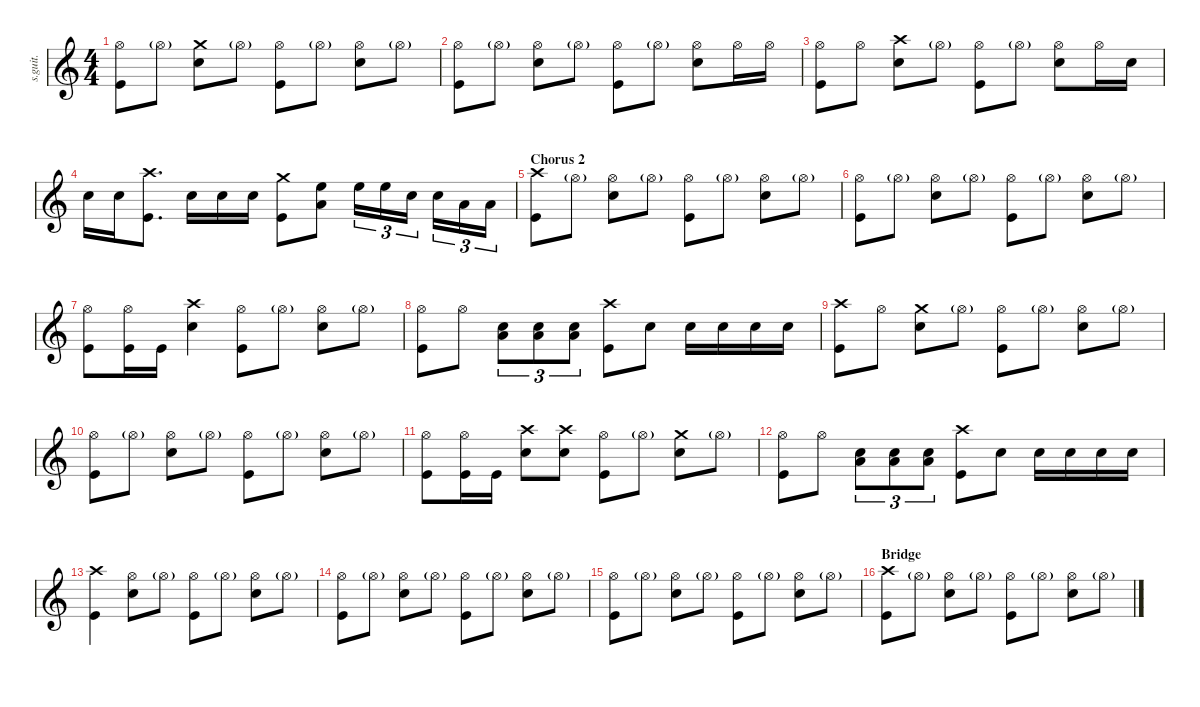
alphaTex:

\defaultSystemsLayout 4
\hideDynamics
\bracketExtendMode nobrackets
\track ("Lars Ulrich" "s.guit.") {instrument percussion}
\staff {score}
\articulation defaults
\ts (4 4)
\tempo (90 hide)
\clef g2
\ks c
("Hi-Hat (open)" "Kick (hit)").8{lyrics (0 "") lyrics (1 "") lyrics (2 "") lyrics (3 "") lyrics (4 "") dy f} "Hi-Hat (open)"{g}.8{lyrics (0 "") lyrics (1 "") lyrics (2 "") lyrics (3 "") lyrics (4 "") dy p} ("Crash medium (hit)" "Snare (hit) 2").8{lyrics (0 "") lyrics (1 "") lyrics (2 "") lyrics (3 "") lyrics (4 "") dy f} "Hi-Hat (open)"{g}.8{lyrics (0 "") lyrics (1 "") lyrics (2 "") lyrics (3 "") lyrics (4 "") dy p} ("Hi-Hat (open)" "Kick (hit)").8{lyrics (0 "") lyrics (1 "") lyrics (2 "") lyrics (3 "") lyrics (4 "") dy f} "Hi-Hat (open)"{g}.8{lyrics (0 "") lyrics (1 "") lyrics (2 "") lyrics (3 "") lyrics (4 "") dy p} ("Hi-Hat (open)" "Snare (hit) 2").8{lyrics (0 "") lyrics (1 "") lyrics (2 "") lyrics (3 "") lyrics (4 "") dy f} "Hi-Hat (open)"{g}.8{lyrics (0 "") lyrics (1 "") lyrics (2 "") lyrics (3 "") lyrics (4 "") dy p} |
\tempo (89 hide)
("Hi-Hat (open)" "Kick (hit)").8{lyrics (0 "") lyrics (1 "") lyrics (2 "") lyrics (3 "") lyrics (4 "") dy f} "Hi-Hat (open)"{g}.8{lyrics (0 "") lyrics (1 "") lyrics (2 "") lyrics (3 "") lyrics (4 "") dy p} ("Hi-Hat (open)" "Snare (hit) 2").8{lyrics (0 "") lyrics (1 "") lyrics (2 "") lyrics (3 "") lyrics (4 "") dy f} "Hi-Hat (open)"{g}.8{lyrics (0 "") lyrics (1 "") lyrics (2 "") lyrics (3 "") lyrics (4 "") dy p} ("Hi-Hat (open)" "Kick (hit)").8{lyrics (0 "") lyrics (1 "") lyrics (2 "") lyrics (3 "") lyrics (4 "") dy f} "Hi-Hat (open)"{g}.8{lyrics (0 "") lyrics (1 "") lyrics (2 "") lyrics (3 "") lyrics (4 "") dy p} ("Hi-Hat (open)" "Snare (hit) 2").8{lyrics (0 "") lyrics (1 "") lyrics (2 "") lyrics (3 "") lyrics (4 "") dy f} "Hi-Hat (open)".16{lyrics (0 "") lyrics (1 "") lyrics (2 "") lyrics (3 "") lyrics (4 "")} "Hi-Hat (open)".16{lyrics (0 "") lyrics (1 "") lyrics (2 "") lyrics (3 "") lyrics (4 "")} |
\tempo (90 hide)
("Hi-Hat (open)" "Kick (hit)").8{lyrics (0 "") lyrics (1 "") lyrics (2 "") lyrics (3 "") lyrics (4 "")} "Hi-Hat (open)".8{lyrics (0 "") lyrics (1 "") lyrics (2 "") lyrics (3 "") lyrics (4 "")} ("Crash high (hit)" "Snare (hit) 2").8{lyrics (0 "") lyrics (1 "") lyrics (2 "") lyrics (3 "") lyrics (4 "")} "Hi-Hat (open)"{g}.8{lyrics (0 "") lyrics (1 "") lyrics (2 "") lyrics (3 "") lyrics (4 "") dy p} ("Hi-Hat (open)" "Kick (hit)").8{lyrics (0 "") lyrics (1 "") lyrics (2 "") lyrics (3 "") lyrics (4 "") dy f} "Hi-Hat (open)"{g}.8{lyrics (0 "") lyrics (1 "") lyrics (2 "") lyrics (3 "") lyrics (4 "") dy p} ("Hi-Hat (open)" "Snare (hit) 2").8{lyrics (0 "") lyrics (1 "") lyrics (2 "") lyrics (3 "") lyrics (4 "") dy f} "Hi-Hat (open)".16{lyrics (0 "") lyrics (1 "") lyrics (2 "") lyrics (3 "") lyrics (4 "")} "Snare (hit) 2".16{lyrics (0 "") lyrics (1 "") lyrics (2 "") lyrics (3 "") lyrics (4 "")} |
"Snare (hit) 2".16{lyrics (0 "") lyrics (1 "") lyrics (2 "") lyrics (3 "") lyrics (4 "")} "Snare (hit) 2".16{lyrics (0 "") lyrics (1 "") lyrics (2 "") lyrics (3 "") lyrics (4 "")} ("Crash high (hit)" "Kick (hit)").8{d lyrics (0 "") lyrics (1 "") lyrics (2 "") lyrics (3 "") lyrics (4 "")} "Snare (hit) 2".16{lyrics (0 "") lyrics (1 "") lyrics (2 "") lyrics (3 "") lyrics (4 "")} "Snare (hit) 2".16{lyrics (0 "") lyrics (1 "") lyrics (2 "") lyrics (3 "") lyrics (4 "")} "Snare (hit) 2".16{lyrics (0 "") lyrics (1 "") lyrics (2 "") lyrics (3 "") lyrics (4 "")} ("Crash medium (hit)" "Kick (hit)").8{lyrics (0 "") lyrics (1 "") lyrics (2 "") lyrics (3 "") lyrics (4 "")} ("High Floor Tom (hit)" "Low Tom (hit)").8{lyrics (0 "") lyrics (1 "") lyrics (2 "") lyrics (3 "") lyrics (4 "") dy ff} "High Floor Tom (hit)".16{tu (3 2) lyrics (0 "") lyrics (1 "") lyrics (2 "") lyrics (3 "") lyrics (4 "")} "High Floor Tom (hit)".16{tu (3 2) lyrics (0 "") lyrics (1 "") lyrics (2 "") lyrics (3 "") lyrics (4 "")} "Snare (hit) 2".16{tu (3 2) lyrics (0 "") lyrics (1 "") lyrics (2 "") lyrics (3 "") lyrics (4 "") dy f} "Snare (hit) 2".16{tu (3 2) lyrics (0 "") lyrics (1 "") lyrics (2 "") lyrics (3 "") lyrics (4 "")} "Low Tom (hit)".16{tu (3 2) lyrics (0 "") lyrics (1 "") lyrics (2 "") lyrics (3 "") lyrics (4 "") dy ff} "Low Floor Tom (hit)".16{tu (3 2) lyrics (0 "") lyrics (1 "") lyrics (2 "") lyrics (3 "") lyrics (4 "")} |
\section ("" "Chorus 2")
\tempo (89 hide)
("Crash high (hit)" "Kick (hit)").8{lyrics (0 "") lyrics (1 "") lyrics (2 "") lyrics (3 "") lyrics (4 "") dy f} "Hi-Hat (open)"{g}.8{lyrics (0 "") lyrics (1 "") lyrics (2 "") lyrics (3 "") lyrics (4 "") dy p} ("Hi-Hat (open)" "Snare (hit) 2").8{lyrics (0 "") lyrics (1 "") lyrics (2 "") lyrics (3 "") lyrics (4 "") dy f} "Hi-Hat (open)"{g}.8{lyrics (0 "") lyrics (1 "") lyrics (2 "") lyrics (3 "") lyrics (4 "") dy p} ("Hi-Hat (open)" "Kick (hit)").8{lyrics (0 "") lyrics (1 "") lyrics (2 "") lyrics (3 "") lyrics (4 "") dy f} "Hi-Hat (open)"{g}.8{lyrics (0 "") lyrics (1 "") lyrics (2 "") lyrics (3 "") lyrics (4 "") dy p} ("Hi-Hat (open)" "Snare (hit) 2").8{lyrics (0 "") lyrics (1 "") lyrics (2 "") lyrics (3 "") lyrics (4 "") dy f} "Hi-Hat (open)"{g}.8{lyrics (0 "") lyrics (1 "") lyrics (2 "") lyrics (3 "") lyrics (4 "") dy p} |
("Hi-Hat (open)" "Kick (hit)").8{lyrics (0 "") lyrics (1 "") lyrics (2 "") lyrics (3 "") lyrics (4 "") dy f} "Hi-Hat (open)"{g}.8{lyrics (0 "") lyrics (1 "") lyrics (2 "") lyrics (3 "") lyrics (4 "") dy p} ("Hi-Hat (open)" "Snare (hit) 2").8{lyrics (0 "") lyrics (1 "") lyrics (2 "") lyrics (3 "") lyrics (4 "") dy f} "Hi-Hat (open)"{g}.8{lyrics (0 "") lyrics (1 "") lyrics (2 "") lyrics (3 "") lyrics (4 "") dy p} ("Hi-Hat (open)" "Kick (hit)").8{lyrics (0 "") lyrics (1 "") lyrics (2 "") lyrics (3 "") lyrics (4 "") dy f} "Hi-Hat (open)"{g}.8{lyrics (0 "") lyrics (1 "") lyrics (2 "") lyrics (3 "") lyrics (4 "") dy p} ("Hi-Hat (open)" "Snare (hit) 2").8{lyrics (0 "") lyrics (1 "") lyrics (2 "") lyrics (3 "") lyrics (4 "") dy f} "Hi-Hat (open)"{g}.8{lyrics (0 "") lyrics (1 "") lyrics (2 "") lyrics (3 "") lyrics (4 "") dy p} |
("Hi-Hat (open)" "Kick (hit)").8{lyrics (0 "") lyrics (1 "") lyrics (2 "") lyrics (3 "") lyrics (4 "") dy f} ("Hi-Hat (open)" "Kick (hit)").16{lyrics (0 "") lyrics (1 "") lyrics (2 "") lyrics (3 "") lyrics (4 "")} "Kick (hit)".16{lyrics (0 "") lyrics (1 "") lyrics (2 "") lyrics (3 "") lyrics (4 "")} ("Crash high (hit)" "Snare (hit) 2").4{lyrics (0 "") lyrics (1 "") lyrics (2 "") lyrics (3 "") lyrics (4 "")} ("Hi-Hat (open)" "Kick (hit)").8{lyrics (0 "") lyrics (1 "") lyrics (2 "") lyrics (3 "") lyrics (4 "")} "Hi-Hat (open)"{g}.8{lyrics (0 "") lyrics (1 "") lyrics (2 "") lyrics (3 "") lyrics (4 "") dy p} ("Hi-Hat (open)" "Snare (hit) 2").8{lyrics (0 "") lyrics (1 "") lyrics (2 "") lyrics (3 "") lyrics (4 "") dy f} "Hi-Hat (open)"{g}.8{lyrics (0 "") lyrics (1 "") lyrics (2 "") lyrics (3 "") lyrics (4 "") dy p} |
("Hi-Hat (open)" "Kick (hit)").8{lyrics (0 "") lyrics (1 "") lyrics (2 "") lyrics (3 "") lyrics (4 "") dy f} "Hi-Hat (open)".8{lyrics (0 "") lyrics (1 "") lyrics (2 "") lyrics (3 "") lyrics (4 "")} ("Low Floor Tom (hit)" "Snare (hit) 2").8{tu (3 2) lyrics (0 "") lyrics (1 "") lyrics (2 "") lyrics (3 "") lyrics (4 "")} ("Low Floor Tom (hit)" "Snare (hit) 2").8{tu (3 2) lyrics (0 "") lyrics (1 "") lyrics (2 "") lyrics (3 "") lyrics (4 "")} ("Low Floor Tom (hit)" "Snare (hit) 2").8{tu (3 2) lyrics (0 "") lyrics (1 "") lyrics (2 "") lyrics (3 "") lyrics (4 "")} ("Kick (hit)" "Crash high (hit)").8{lyrics (0 "") lyrics (1 "") lyrics (2 "") lyrics (3 "") lyrics (4 "")} "Snare (hit) 2".8{lyrics (0 "") lyrics (1 "") lyrics (2 "") lyrics (3 "") lyrics (4 "")} "Snare (hit) 2".16{lyrics (0 "") lyrics (1 "") lyrics (2 "") lyrics (3 "") lyrics (4 "")} "Snare (hit) 2".16{lyrics (0 "") lyrics (1 "") lyrics (2 "") lyrics (3 "") lyrics (4 "")} "Snare (hit) 2".16{lyrics (0 "") lyrics (1 "") lyrics (2 "") lyrics (3 "") lyrics (4 "")} "Snare (hit) 2".16{lyrics (0 "") lyrics (1 "") lyrics (2 "") lyrics (3 "") lyrics (4 "")} |
("Crash high (hit)" "Kick (hit)").8{lyrics (0 "") lyrics (1 "") lyrics (2 "") lyrics (3 "") lyrics (4 "")} "Hi-Hat (open)".8{lyrics (0 "") lyrics (1 "") lyrics (2 "") lyrics (3 "") lyrics (4 "")} ("Crash medium (hit)" "Snare (hit) 2").8{lyrics (0 "") lyrics (1 "") lyrics (2 "") lyrics (3 "") lyrics (4 "")} "Hi-Hat (open)"{g}.8{lyrics (0 "") lyrics (1 "") lyrics (2 "") lyrics (3 "") lyrics (4 "") dy p} ("Hi-Hat (open)" "Kick (hit)").8{lyrics (0 "") lyrics (1 "") lyrics (2 "") lyrics (3 "") lyrics (4 "") dy f} "Hi-Hat (open)"{g}.8{lyrics (0 "") lyrics (1 "") lyrics (2 "") lyrics (3 "") lyrics (4 "") dy p} ("Hi-Hat (open)" "Snare (hit) 2").8{lyrics (0 "") lyrics (1 "") lyrics (2 "") lyrics (3 "") lyrics (4 "") dy f} "Hi-Hat (open)"{g}.8{lyrics (0 "") lyrics (1 "") lyrics (2 "") lyrics (3 "") lyrics (4 "") dy p} |
("Hi-Hat (open)" "Kick (hit)").8{lyrics (0 "") lyrics (1 "") lyrics (2 "") lyrics (3 "") lyrics (4 "") dy f} "Hi-Hat (open)"{g}.8{lyrics (0 "") lyrics (1 "") lyrics (2 "") lyrics (3 "") lyrics (4 "") dy p} ("Hi-Hat (open)" "Snare (hit) 2").8{lyrics (0 "") lyrics (1 "") lyrics (2 "") lyrics (3 "") lyrics (4 "") dy f} "Hi-Hat (open)"{g}.8{lyrics (0 "") lyrics (1 "") lyrics (2 "") lyrics (3 "") lyrics (4 "") dy p} ("Hi-Hat (open)" "Kick (hit)").8{lyrics (0 "") lyrics (1 "") lyrics (2 "") lyrics (3 "") lyrics (4 "") dy f} "Hi-Hat (open)"{g}.8{lyrics (0 "") lyrics (1 "") lyrics (2 "") lyrics (3 "") lyrics (4 "") dy p} ("Hi-Hat (open)" "Snare (hit) 2").8{lyrics (0 "") lyrics (1 "") lyrics (2 "") lyrics (3 "") lyrics (4 "") dy f} "Hi-Hat (open)"{g}.8{lyrics (0 "") lyrics (1 "") lyrics (2 "") lyrics (3 "") lyrics (4 "") dy p} |
("Hi-Hat (open)" "Kick (hit)").8{lyrics (0 "") lyrics (1 "") lyrics (2 "") lyrics (3 "") lyrics (4 "") dy f} ("Hi-Hat (open)" "Kick (hit)").16{lyrics (0 "") lyrics (1 "") lyrics (2 "") lyrics (3 "") lyrics (4 "")} "Kick (hit)".16{lyrics (0 "") lyrics (1 "") lyrics (2 "") lyrics (3 "") lyrics (4 "")} ("Crash high (hit)" "Snare (hit) 2").8{lyrics (0 "") lyrics (1 "") lyrics (2 "") lyrics (3 "") lyrics (4 "")} ("Crash high (hit)" "Snare (hit) 2").8{lyrics (0 "") lyrics (1 "") lyrics (2 "") lyrics (3 "") lyrics (4 "")} ("Hi-Hat (open)" "Kick (hit)").8{lyrics (0 "") lyrics (1 "") lyrics (2 "") lyrics (3 "") lyrics (4 "")} "Hi-Hat (open)"{g}.8{lyrics (0 "") lyrics (1 "") lyrics (2 "") lyrics (3 "") lyrics (4 "") dy p} ("Crash medium (hit)" "Snare (hit) 2").8{lyrics (0 "") lyrics (1 "") lyrics (2 "") lyrics (3 "") lyrics (4 "") dy f} "Hi-Hat (open)"{g}.8{lyrics (0 "") lyrics (1 "") lyrics (2 "") lyrics (3 "") lyrics (4 "") dy p} |
\tempo (86 hide)
("Hi-Hat (open)" "Kick (hit)").8{lyrics (0 "") lyrics (1 "") lyrics (2 "") lyrics (3 "") lyrics (4 "") dy f} "Hi-Hat (open)".8{lyrics (0 "") lyrics (1 "") lyrics (2 "") lyrics (3 "") lyrics (4 "")} ("Low Floor Tom (hit)" "Snare (hit) 2").8{tu (3 2) lyrics (0 "") lyrics (1 "") lyrics (2 "") lyrics (3 "") lyrics (4 "")} ("Low Floor Tom (hit)" "Snare (hit) 2").8{tu (3 2) lyrics (0 "") lyrics (1 "") lyrics (2 "") lyrics (3 "") lyrics (4 "")} ("Low Floor Tom (hit)" "Snare (hit) 2").8{tu (3 2) lyrics (0 "") lyrics (1 "") lyrics (2 "") lyrics (3 "") lyrics (4 "")} ("Kick (hit)" "Crash high (hit)").8{lyrics (0 "") lyrics (1 "") lyrics (2 "") lyrics (3 "") lyrics (4 "")} "Snare (hit) 2".8{lyrics (0 "") lyrics (1 "") lyrics (2 "") lyrics (3 "") lyrics (4 "")} "Snare (hit) 2".16{lyrics (0 "") lyrics (1 "") lyrics (2 "") lyrics (3 "") lyrics (4 "")} "Snare (hit) 2".16{lyrics (0 "") lyrics (1 "") lyrics (2 "") lyrics (3 "") lyrics (4 "")} "Snare (hit) 2".16{lyrics (0 "") lyrics (1 "") lyrics (2 "") lyrics (3 "") lyrics (4 "")} "Snare (hit) 2".16{lyrics (0 "") lyrics (1 "") lyrics (2 "") lyrics (3 "") lyrics (4 "")} |
\tempo (87 hide)
("Crash high (hit)" "Kick (hit)").4{lyrics (0 "") lyrics (1 "") lyrics (2 "") lyrics (3 "") lyrics (4 "")} ("Hi-Hat (open)" "Snare (hit) 2").8{lyrics (0 "") lyrics (1 "") lyrics (2 "") lyrics (3 "") lyrics (4 "")} "Hi-Hat (open)"{g}.8{lyrics (0 "") lyrics (1 "") lyrics (2 "") lyrics (3 "") lyrics (4 "") dy p} ("Hi-Hat (open)" "Kick (hit)").8{lyrics (0 "") lyrics (1 "") lyrics (2 "") lyrics (3 "") lyrics (4 "") dy f} "Hi-Hat (open)"{g}.8{lyrics (0 "") lyrics (1 "") lyrics (2 "") lyrics (3 "") lyrics (4 "") dy p} ("Hi-Hat (open)" "Snare (hit) 2").8{lyrics (0 "") lyrics (1 "") lyrics (2 "") lyrics (3 "") lyrics (4 "") dy f} "Hi-Hat (open)"{g}.8{lyrics (0 "") lyrics (1 "") lyrics (2 "") lyrics (3 "") lyrics (4 "") dy p} |
\tempo (89 hide)
("Hi-Hat (open)" "Kick (hit)").8{lyrics (0 "") lyrics (1 "") lyrics (2 "") lyrics (3 "") lyrics (4 "") dy f} "Hi-Hat (open)"{g}.8{lyrics (0 "") lyrics (1 "") lyrics (2 "") lyrics (3 "") lyrics (4 "") dy p} ("Hi-Hat (open)" "Snare (hit) 2").8{lyrics (0 "") lyrics (1 "") lyrics (2 "") lyrics (3 "") lyrics (4 "") dy f} "Hi-Hat (open)"{g}.8{lyrics (0 "") lyrics (1 "") lyrics (2 "") lyrics (3 "") lyrics (4 "") dy p} ("Hi-Hat (open)" "Kick (hit)").8{lyrics (0 "") lyrics (1 "") lyrics (2 "") lyrics (3 "") lyrics (4 "") dy f} "Hi-Hat (open)"{g}.8{lyrics (0 "") lyrics (1 "") lyrics (2 "") lyrics (3 "") lyrics (4 "") dy p} ("Hi-Hat (open)" "Snare (hit) 2").8{lyrics (0 "") lyrics (1 "") lyrics (2 "") lyrics (3 "") lyrics (4 "") dy f} "Hi-Hat (open)"{g}.8{lyrics (0 "") lyrics (1 "") lyrics (2 "") lyrics (3 "") lyrics (4 "") dy p} |
\tempo (90 hide)
("Hi-Hat (open)" "Kick (hit)").8{lyrics (0 "") lyrics (1 "") lyrics (2 "") lyrics (3 "") lyrics (4 "") dy f} "Hi-Hat (open)"{g}.8{lyrics (0 "") lyrics (1 "") lyrics (2 "") lyrics (3 "") lyrics (4 "") dy p} ("Hi-Hat (open)" "Snare (hit) 2").8{lyrics (0 "") lyrics (1 "") lyrics (2 "") lyrics (3 "") lyrics (4 "") dy f} "Hi-Hat (open)"{g}.8{lyrics (0 "") lyrics (1 "") lyrics (2 "") lyrics (3 "") lyrics (4 "") dy p} ("Hi-Hat (open)" "Kick (hit)").8{lyrics (0 "") lyrics (1 "") lyrics (2 "") lyrics (3 "") lyrics (4 "") dy f} "Hi-Hat (open)"{g}.8{lyrics (0 "") lyrics (1 "") lyrics (2 "") lyrics (3 "") lyrics (4 "") dy p} ("Hi-Hat (open)" "Snare (hit) 2").8{lyrics (0 "") lyrics (1 "") lyrics (2 "") lyrics (3 "") lyrics (4 "") dy f} "Hi-Hat (open)"{g}.8{lyrics (0 "") lyrics (1 "") lyrics (2 "") lyrics (3 "") lyrics (4 "") dy p} |
\section ("" "Bridge")
\tempo (89 hide)
("Crash high (hit)" "Kick (hit)").8{lyrics (0 "") lyrics (1 "") lyrics (2 "") lyrics (3 "") lyrics (4 "") dy f} "Hi-Hat (open)"{g}.8{lyrics (0 "") lyrics (1 "") lyrics (2 "") lyrics (3 "") lyrics (4 "") dy p} ("Hi-Hat (open)" "Snare (hit) 2").8{lyrics (0 "") lyrics (1 "") lyrics (2 "") lyrics (3 "") lyrics (4 "") dy f} "Hi-Hat (open)"{g}.8{lyrics (0 "") lyrics (1 "") lyrics (2 "") lyrics (3 "") lyrics (4 "") dy p} ("Hi-Hat (open)" "Kick (hit)").8{lyrics (0 "") lyrics (1 "") lyrics (2 "") lyrics (3 "") lyrics (4 "") dy f} "Hi-Hat (open)"{g}.8{lyrics (0 "") lyrics (1 "") lyrics (2 "") lyrics (3 "") lyrics (4 "") dy p} ("Hi-Hat (open)" "Snare (hit) 2").8{lyrics (0 "") lyrics (1 "") lyrics (2 "") lyrics (3 "") lyrics (4 "") dy f} "Hi-Hat (open)"{g}.8{lyrics (0 "") lyrics (1 "") lyrics (2 "") lyrics (3 "") lyrics (4 "") dy p}
